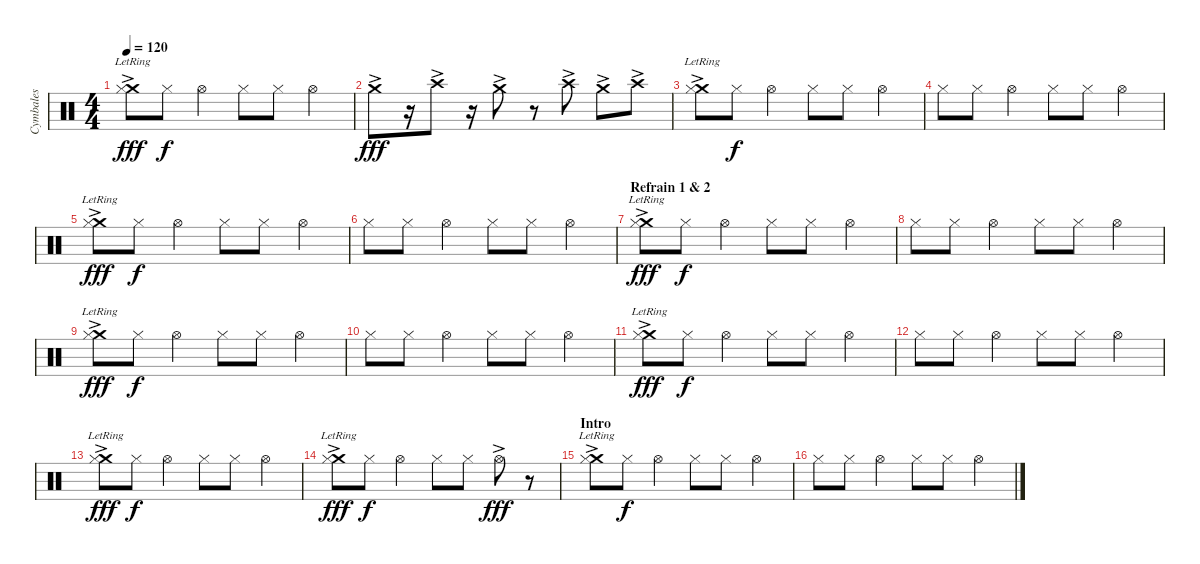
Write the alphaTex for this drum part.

\track ("Cymbales" "Cymbales") {instrument percussion}
\staff {score}
\articulation defaults
\ts (4 4)
\tempo 120
\clef neutral
\ks c
("Crash medium (hit)"{ac lr} "Hi-Hat (closed)").8{dy fff} "Hi-Hat (closed)".8{dy f} "Hi-Hat (open)".4 "Hi-Hat (closed)".8 "Hi-Hat (closed)".8 "Hi-Hat (open)".4 |
"Crash medium (hit)"{ac}.8{dy fff} r.16 "Crash high (hit)"{ac}.8 r.16 "Crash medium (hit)"{ac}.8 r.8 "Crash high (hit)"{ac}.8 "Crash medium (hit)"{ac}.8 "Crash high (hit)"{ac}.8 |
("Crash medium (hit)"{ac lr} "Hi-Hat (closed)").8 "Hi-Hat (closed)".8{dy f} "Hi-Hat (open)".4 "Hi-Hat (closed)".8 "Hi-Hat (closed)".8 "Hi-Hat (open)".4 |
"Hi-Hat (closed)".8 "Hi-Hat (closed)".8 "Hi-Hat (open)".4 "Hi-Hat (closed)".8 "Hi-Hat (closed)".8 "Hi-Hat (open)".4 |
("Crash medium (hit)"{ac lr} "Hi-Hat (closed)").8{dy fff} "Hi-Hat (closed)".8{dy f} "Hi-Hat (open)".4 "Hi-Hat (closed)".8 "Hi-Hat (closed)".8 "Hi-Hat (open)".4 |
"Hi-Hat (closed)".8 "Hi-Hat (closed)".8 "Hi-Hat (open)".4 "Hi-Hat (closed)".8 "Hi-Hat (closed)".8 "Hi-Hat (open)".4 |
\section ("" "Refrain 1 & 2")
("Crash medium (hit)"{ac lr} "Hi-Hat (closed)").8{dy fff} "Hi-Hat (closed)".8{dy f} "Hi-Hat (open)".4 "Hi-Hat (closed)".8 "Hi-Hat (closed)".8 "Hi-Hat (open)".4 |
"Hi-Hat (closed)".8 "Hi-Hat (closed)".8 "Hi-Hat (open)".4 "Hi-Hat (closed)".8 "Hi-Hat (closed)".8 "Hi-Hat (open)".4 |
("Crash medium (hit)"{ac lr} "Hi-Hat (closed)").8{dy fff} "Hi-Hat (closed)".8{dy f} "Hi-Hat (open)".4 "Hi-Hat (closed)".8 "Hi-Hat (closed)".8 "Hi-Hat (open)".4 |
"Hi-Hat (closed)".8 "Hi-Hat (closed)".8 "Hi-Hat (open)".4 "Hi-Hat (closed)".8 "Hi-Hat (closed)".8 "Hi-Hat (open)".4 |
("Crash medium (hit)"{ac lr} "Hi-Hat (closed)").8{dy fff} "Hi-Hat (closed)".8{dy f} "Hi-Hat (open)".4 "Hi-Hat (closed)".8 "Hi-Hat (closed)".8 "Hi-Hat (open)".4 |
"Hi-Hat (closed)".8 "Hi-Hat (closed)".8 "Hi-Hat (open)".4 "Hi-Hat (closed)".8 "Hi-Hat (closed)".8 "Hi-Hat (open)".4 |
("Crash medium (hit)"{ac lr} "Hi-Hat (closed)").8{dy fff} "Hi-Hat (closed)".8{dy f} "Hi-Hat (open)".4 "Hi-Hat (closed)".8 "Hi-Hat (closed)".8 "Hi-Hat (open)".4 |
("Crash medium (hit)"{ac lr} "Hi-Hat (closed)").8{dy fff} "Hi-Hat (closed)".8{dy f} "Hi-Hat (open)".4 "Hi-Hat (closed)".8 "Hi-Hat (closed)".8 "Hi-Hat (open)"{ac}.8{dy fff} r.8 |
\section ("" "Intro")
("Crash medium (hit)"{ac lr} "Hi-Hat (closed)").8 "Hi-Hat (closed)".8{dy f} "Hi-Hat (open)".4 "Hi-Hat (closed)".8 "Hi-Hat (closed)".8 "Hi-Hat (open)".4 |
"Hi-Hat (closed)".8 "Hi-Hat (closed)".8 "Hi-Hat (open)".4 "Hi-Hat (closed)".8 "Hi-Hat (closed)".8 "Hi-Hat (open)".4
